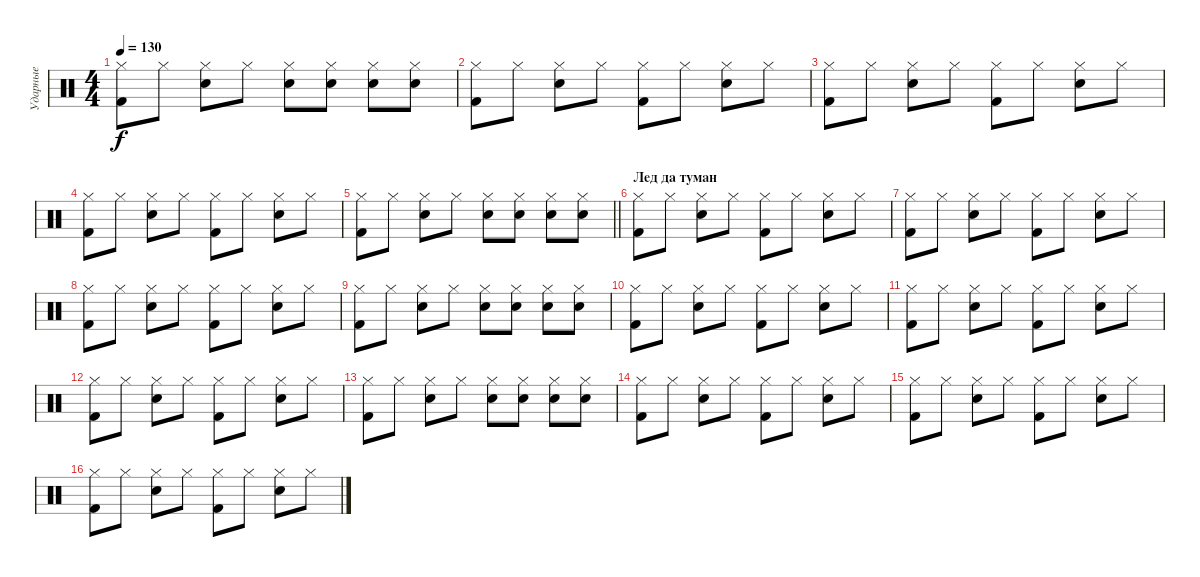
\track ("Ударные" "Ударные") {instrument percussion}
\staff {score}
\articulation defaults
\ts (4 4)
\tempo 130
\clef neutral
\ks c
("Hi-Hat (closed)" "Kick (hit) 2").8{dy f} "Hi-Hat (closed)".8 ("Hi-Hat (closed)" "Snare (hit) 2").8 "Hi-Hat (closed)".8 ("Hi-Hat (closed)" "Snare (hit) 2").8 ("Hi-Hat (closed)" "Snare (hit) 2").8 ("Hi-Hat (closed)" "Snare (hit) 2").8 ("Hi-Hat (closed)" "Snare (hit) 2").8 |
("Hi-Hat (closed)" "Kick (hit) 2").8 "Hi-Hat (closed)".8 ("Hi-Hat (closed)" "Snare (hit) 2").8 "Hi-Hat (closed)".8 ("Hi-Hat (closed)" "Kick (hit) 2").8 "Hi-Hat (closed)".8 ("Hi-Hat (closed)" "Snare (hit) 2").8 "Hi-Hat (closed)".8 |
("Hi-Hat (closed)" "Kick (hit) 2").8 "Hi-Hat (closed)".8 ("Hi-Hat (closed)" "Snare (hit) 2").8 "Hi-Hat (closed)".8 ("Hi-Hat (closed)" "Kick (hit) 2").8 "Hi-Hat (closed)".8 ("Hi-Hat (closed)" "Snare (hit) 2").8 "Hi-Hat (closed)".8 |
("Hi-Hat (closed)" "Kick (hit) 2").8 "Hi-Hat (closed)".8 ("Hi-Hat (closed)" "Snare (hit) 2").8 "Hi-Hat (closed)".8 ("Hi-Hat (closed)" "Kick (hit) 2").8 "Hi-Hat (closed)".8 ("Hi-Hat (closed)" "Snare (hit) 2").8 "Hi-Hat (closed)".8 |
\barLineRight lightlight
("Hi-Hat (closed)" "Kick (hit) 2").8 "Hi-Hat (closed)".8 ("Hi-Hat (closed)" "Snare (hit) 2").8 "Hi-Hat (closed)".8 ("Hi-Hat (closed)" "Snare (hit) 2").8 ("Hi-Hat (closed)" "Snare (hit) 2").8 ("Hi-Hat (closed)" "Snare (hit) 2").8 ("Hi-Hat (closed)" "Snare (hit) 2").8 |
\section ("" "Лед да туман")
("Hi-Hat (closed)" "Kick (hit) 2").8 "Hi-Hat (closed)".8 ("Hi-Hat (closed)" "Snare (hit) 2").8 "Hi-Hat (closed)".8 ("Hi-Hat (closed)" "Kick (hit) 2").8 "Hi-Hat (closed)".8 ("Hi-Hat (closed)" "Snare (hit) 2").8 "Hi-Hat (closed)".8 |
("Hi-Hat (closed)" "Kick (hit) 2").8 "Hi-Hat (closed)".8 ("Hi-Hat (closed)" "Snare (hit) 2").8 "Hi-Hat (closed)".8 ("Hi-Hat (closed)" "Kick (hit) 2").8 "Hi-Hat (closed)".8 ("Hi-Hat (closed)" "Snare (hit) 2").8 "Hi-Hat (closed)".8 |
("Hi-Hat (closed)" "Kick (hit) 2").8 "Hi-Hat (closed)".8 ("Hi-Hat (closed)" "Snare (hit) 2").8 "Hi-Hat (closed)".8 ("Hi-Hat (closed)" "Kick (hit) 2").8 "Hi-Hat (closed)".8 ("Hi-Hat (closed)" "Snare (hit) 2").8 "Hi-Hat (closed)".8 |
("Hi-Hat (closed)" "Kick (hit) 2").8 "Hi-Hat (closed)".8 ("Hi-Hat (closed)" "Snare (hit) 2").8 "Hi-Hat (closed)".8 ("Hi-Hat (closed)" "Snare (hit) 2").8 ("Hi-Hat (closed)" "Snare (hit) 2").8 ("Hi-Hat (closed)" "Snare (hit) 2").8 ("Hi-Hat (closed)" "Snare (hit) 2").8 |
("Hi-Hat (closed)" "Kick (hit) 2").8 "Hi-Hat (closed)".8 ("Hi-Hat (closed)" "Snare (hit) 2").8 "Hi-Hat (closed)".8 ("Hi-Hat (closed)" "Kick (hit) 2").8 "Hi-Hat (closed)".8 ("Hi-Hat (closed)" "Snare (hit) 2").8 "Hi-Hat (closed)".8 |
("Hi-Hat (closed)" "Kick (hit) 2").8 "Hi-Hat (closed)".8 ("Hi-Hat (closed)" "Snare (hit) 2").8 "Hi-Hat (closed)".8 ("Hi-Hat (closed)" "Kick (hit) 2").8 "Hi-Hat (closed)".8 ("Hi-Hat (closed)" "Snare (hit) 2").8 "Hi-Hat (closed)".8 |
("Hi-Hat (closed)" "Kick (hit) 2").8 "Hi-Hat (closed)".8 ("Hi-Hat (closed)" "Snare (hit) 2").8 "Hi-Hat (closed)".8 ("Hi-Hat (closed)" "Kick (hit) 2").8 "Hi-Hat (closed)".8 ("Hi-Hat (closed)" "Snare (hit) 2").8 "Hi-Hat (closed)".8 |
("Hi-Hat (closed)" "Kick (hit) 2").8 "Hi-Hat (closed)".8 ("Hi-Hat (closed)" "Snare (hit) 2").8 "Hi-Hat (closed)".8 ("Hi-Hat (closed)" "Snare (hit) 2").8 ("Hi-Hat (closed)" "Snare (hit) 2").8 ("Hi-Hat (closed)" "Snare (hit) 2").8 ("Hi-Hat (closed)" "Snare (hit) 2").8 |
("Hi-Hat (closed)" "Kick (hit) 2").8 "Hi-Hat (closed)".8 ("Hi-Hat (closed)" "Snare (hit) 2").8 "Hi-Hat (closed)".8 ("Hi-Hat (closed)" "Kick (hit) 2").8 "Hi-Hat (closed)".8 ("Hi-Hat (closed)" "Snare (hit) 2").8 "Hi-Hat (closed)".8 |
("Hi-Hat (closed)" "Kick (hit) 2").8 "Hi-Hat (closed)".8 ("Hi-Hat (closed)" "Snare (hit) 2").8 "Hi-Hat (closed)".8 ("Hi-Hat (closed)" "Kick (hit) 2").8 "Hi-Hat (closed)".8 ("Hi-Hat (closed)" "Snare (hit) 2").8 "Hi-Hat (closed)".8 |
("Hi-Hat (closed)" "Kick (hit) 2").8 "Hi-Hat (closed)".8 ("Hi-Hat (closed)" "Snare (hit) 2").8 "Hi-Hat (closed)".8 ("Hi-Hat (closed)" "Kick (hit) 2").8 "Hi-Hat (closed)".8 ("Hi-Hat (closed)" "Snare (hit) 2").8 "Hi-Hat (closed)".8
